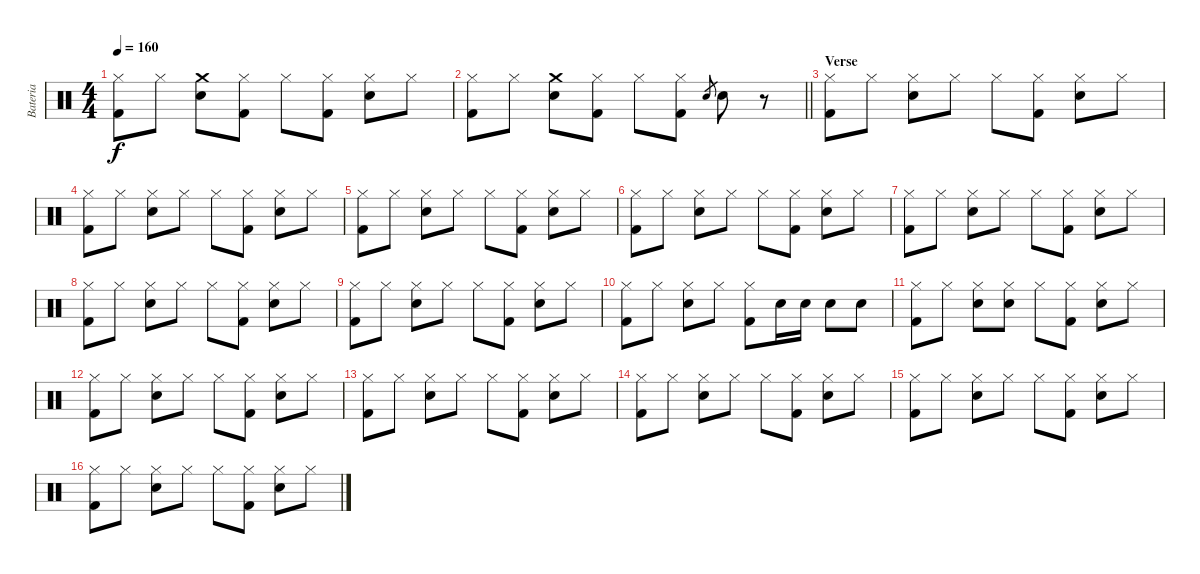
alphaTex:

\track ("Bateria" "Bateria") {instrument percussion}
\staff {score}
\articulation defaults
\ts (4 4)
\tempo 160
\clef neutral
\ks c
("Hi-Hat (closed)" "Kick (hit) 2").8{dy f} "Hi-Hat (closed)".8 ("Crash medium (hit)" "Electric Snare (hit)").8 ("Hi-Hat (closed)" "Kick (hit) 2").8 "Hi-Hat (closed)".8 ("Hi-Hat (closed)" "Kick (hit) 2").8 ("Hi-Hat (closed)" "Electric Snare (hit)").8 "Hi-Hat (closed)".8 |
\barLineRight lightlight
("Hi-Hat (closed)" "Kick (hit) 2").8 "Hi-Hat (closed)".8 ("Crash medium (hit)" "Electric Snare (hit)").8 ("Hi-Hat (closed)" "Kick (hit) 2").8 "Hi-Hat (closed)".8 ("Hi-Hat (closed)" "Kick (hit) 2").8 "Electric Snare (hit)".8{gr} "Electric Snare (hit)".8 r.8 |
\section ("" "Verse")
("Hi-Hat (closed)" "Kick (hit) 2").8 "Hi-Hat (closed)".8 ("Hi-Hat (closed)" "Electric Snare (hit)").8 "Hi-Hat (closed)".8 "Hi-Hat (closed)".8 ("Hi-Hat (closed)" "Kick (hit) 2").8 ("Hi-Hat (closed)" "Electric Snare (hit)").8 "Hi-Hat (closed)".8 |
("Hi-Hat (closed)" "Kick (hit) 2").8 "Hi-Hat (closed)".8 ("Hi-Hat (closed)" "Electric Snare (hit)").8 "Hi-Hat (closed)".8 "Hi-Hat (closed)".8 ("Hi-Hat (closed)" "Kick (hit) 2").8 ("Hi-Hat (closed)" "Electric Snare (hit)").8 "Hi-Hat (closed)".8 |
("Hi-Hat (closed)" "Kick (hit) 2").8 "Hi-Hat (closed)".8 ("Hi-Hat (closed)" "Electric Snare (hit)").8 "Hi-Hat (closed)".8 "Hi-Hat (closed)".8 ("Hi-Hat (closed)" "Kick (hit) 2").8 ("Hi-Hat (closed)" "Electric Snare (hit)").8 "Hi-Hat (closed)".8 |
("Hi-Hat (closed)" "Kick (hit) 2").8 "Hi-Hat (closed)".8 ("Hi-Hat (closed)" "Electric Snare (hit)").8 "Hi-Hat (closed)".8 "Hi-Hat (closed)".8 ("Hi-Hat (closed)" "Kick (hit) 2").8 ("Hi-Hat (closed)" "Electric Snare (hit)").8 "Hi-Hat (closed)".8 |
("Hi-Hat (closed)" "Kick (hit) 2").8 "Hi-Hat (closed)".8 ("Hi-Hat (closed)" "Electric Snare (hit)").8 "Hi-Hat (closed)".8 "Hi-Hat (closed)".8 ("Hi-Hat (closed)" "Kick (hit) 2").8 ("Hi-Hat (closed)" "Electric Snare (hit)").8 "Hi-Hat (closed)".8 |
("Hi-Hat (closed)" "Kick (hit) 2").8 "Hi-Hat (closed)".8 ("Hi-Hat (closed)" "Electric Snare (hit)").8 "Hi-Hat (closed)".8 "Hi-Hat (closed)".8 ("Hi-Hat (closed)" "Kick (hit) 2").8 ("Hi-Hat (closed)" "Electric Snare (hit)").8 "Hi-Hat (closed)".8 |
("Hi-Hat (closed)" "Kick (hit) 2").8 "Hi-Hat (closed)".8 ("Hi-Hat (closed)" "Electric Snare (hit)").8 "Hi-Hat (closed)".8 "Hi-Hat (closed)".8 ("Hi-Hat (closed)" "Kick (hit) 2").8 ("Hi-Hat (closed)" "Electric Snare (hit)").8 "Hi-Hat (closed)".8 |
("Hi-Hat (closed)" "Kick (hit) 2").8 "Hi-Hat (closed)".8 ("Hi-Hat (closed)" "Electric Snare (hit)").8 "Hi-Hat (closed)".8 ("Hi-Hat (closed)" "Kick (hit) 2").8 "Electric Snare (hit)".16 "Electric Snare (hit)".16 "Electric Snare (hit)".8 "Electric Snare (hit)".8 |
("Hi-Hat (closed)" "Kick (hit) 2").8 "Hi-Hat (closed)".8 ("Hi-Hat (closed)" "Electric Snare (hit)").8 ("Hi-Hat (closed)" "Electric Snare (hit)").8 "Hi-Hat (closed)".8 ("Hi-Hat (closed)" "Kick (hit) 2").8 ("Hi-Hat (closed)" "Electric Snare (hit)").8 "Hi-Hat (closed)".8 |
("Hi-Hat (closed)" "Kick (hit) 2").8 "Hi-Hat (closed)".8 ("Hi-Hat (closed)" "Electric Snare (hit)").8 "Hi-Hat (closed)".8 "Hi-Hat (closed)".8 ("Hi-Hat (closed)" "Kick (hit) 2").8 ("Hi-Hat (closed)" "Electric Snare (hit)").8 "Hi-Hat (closed)".8 |
("Hi-Hat (closed)" "Kick (hit) 2").8 "Hi-Hat (closed)".8 ("Hi-Hat (closed)" "Electric Snare (hit)").8 "Hi-Hat (closed)".8 "Hi-Hat (closed)".8 ("Hi-Hat (closed)" "Kick (hit) 2").8 ("Hi-Hat (closed)" "Electric Snare (hit)").8 "Hi-Hat (closed)".8 |
("Hi-Hat (closed)" "Kick (hit) 2").8 "Hi-Hat (closed)".8 ("Hi-Hat (closed)" "Electric Snare (hit)").8 "Hi-Hat (closed)".8 "Hi-Hat (closed)".8 ("Hi-Hat (closed)" "Kick (hit) 2").8 ("Hi-Hat (closed)" "Electric Snare (hit)").8 "Hi-Hat (closed)".8 |
("Hi-Hat (closed)" "Kick (hit) 2").8 "Hi-Hat (closed)".8 ("Hi-Hat (closed)" "Electric Snare (hit)").8 "Hi-Hat (closed)".8 "Hi-Hat (closed)".8 ("Hi-Hat (closed)" "Kick (hit) 2").8 ("Hi-Hat (closed)" "Electric Snare (hit)").8 "Hi-Hat (closed)".8 |
("Hi-Hat (closed)" "Kick (hit) 2").8 "Hi-Hat (closed)".8 ("Hi-Hat (closed)" "Electric Snare (hit)").8 "Hi-Hat (closed)".8 "Hi-Hat (closed)".8 ("Hi-Hat (closed)" "Kick (hit) 2").8 ("Hi-Hat (closed)" "Electric Snare (hit)").8 "Hi-Hat (closed)".8
